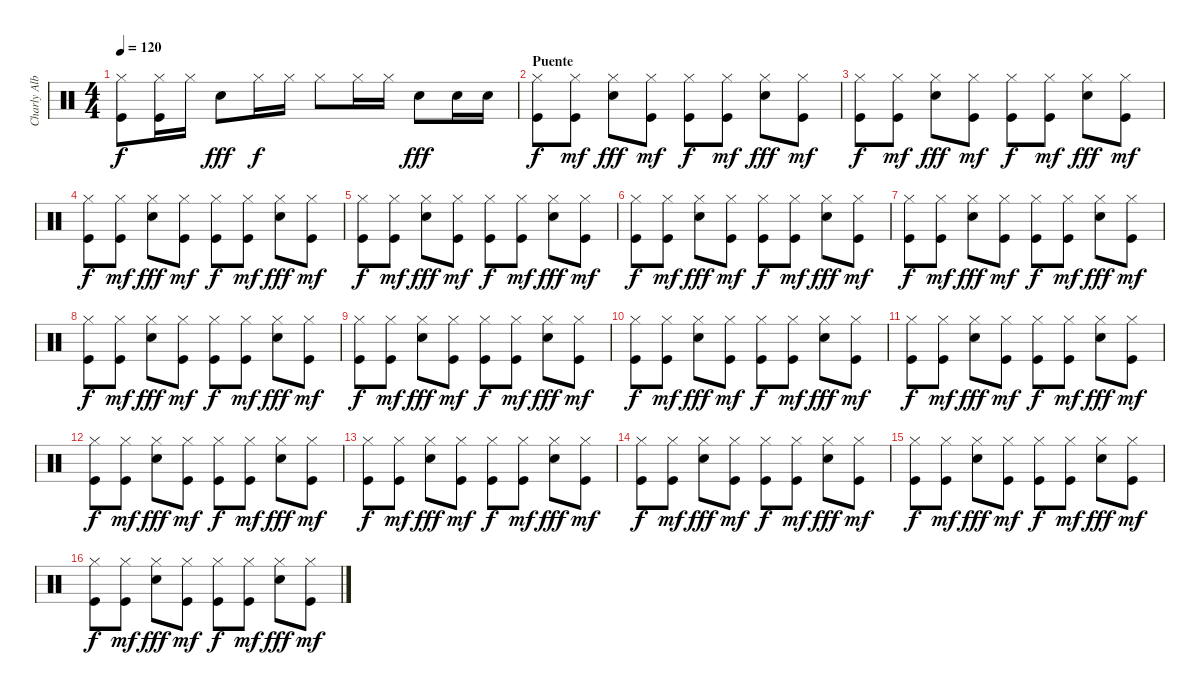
\track ("Charly Alberti" "Charly Alb") {instrument percussion}
\staff {score}
\articulation defaults
\ts (4 4)
\tempo 120
\clef neutral
\ks c
("Kick (hit)" "Hi-Hat (closed)").8{dy f} ("Kick (hit)" "Hi-Hat (closed)").16 "Hi-Hat (closed)".16 "Snare (hit) 2".8{dy fff} "Hi-Hat (closed)".16{dy f} "Hi-Hat (closed)".16 "Hi-Hat (closed)".8 "Hi-Hat (closed)".16 "Hi-Hat (closed)".16 "Snare (hit) 2".8{dy fff} "Snare (hit) 2".16 "Snare (hit) 2".16 |
\section ("" "Puente")
("Kick (hit)" "Hi-Hat (closed)").8{dy f} ("Kick (hit)" "Hi-Hat (closed)").8{dy mf} ("Snare (hit) 2" "Hi-Hat (closed)").8{dy fff} ("Kick (hit)" "Hi-Hat (closed)").8{dy mf} ("Kick (hit)" "Hi-Hat (closed)").8{dy f} ("Kick (hit)" "Hi-Hat (closed)").8{dy mf} ("Snare (hit) 2" "Hi-Hat (closed)").8{dy fff} ("Kick (hit)" "Hi-Hat (closed)").8{dy mf} |
("Kick (hit)" "Hi-Hat (closed)").8{dy f} ("Kick (hit)" "Hi-Hat (closed)").8{dy mf} ("Snare (hit) 2" "Hi-Hat (closed)").8{dy fff} ("Kick (hit)" "Hi-Hat (closed)").8{dy mf} ("Kick (hit)" "Hi-Hat (closed)").8{dy f} ("Kick (hit)" "Hi-Hat (closed)").8{dy mf} ("Snare (hit) 2" "Hi-Hat (closed)").8{dy fff} ("Kick (hit)" "Hi-Hat (closed)").8{dy mf} |
("Kick (hit)" "Hi-Hat (closed)").8{dy f} ("Kick (hit)" "Hi-Hat (closed)").8{dy mf} ("Snare (hit) 2" "Hi-Hat (closed)").8{dy fff} ("Kick (hit)" "Hi-Hat (closed)").8{dy mf} ("Kick (hit)" "Hi-Hat (closed)").8{dy f} ("Kick (hit)" "Hi-Hat (closed)").8{dy mf} ("Snare (hit) 2" "Hi-Hat (closed)").8{dy fff} ("Kick (hit)" "Hi-Hat (closed)").8{dy mf} |
("Kick (hit)" "Hi-Hat (closed)").8{dy f} ("Kick (hit)" "Hi-Hat (closed)").8{dy mf} ("Snare (hit) 2" "Hi-Hat (closed)").8{dy fff} ("Kick (hit)" "Hi-Hat (closed)").8{dy mf} ("Kick (hit)" "Hi-Hat (closed)").8{dy f} ("Kick (hit)" "Hi-Hat (closed)").8{dy mf} ("Snare (hit) 2" "Hi-Hat (closed)").8{dy fff} ("Kick (hit)" "Hi-Hat (closed)").8{dy mf} |
("Kick (hit)" "Hi-Hat (closed)").8{dy f} ("Kick (hit)" "Hi-Hat (closed)").8{dy mf} ("Snare (hit) 2" "Hi-Hat (closed)").8{dy fff} ("Kick (hit)" "Hi-Hat (closed)").8{dy mf} ("Kick (hit)" "Hi-Hat (closed)").8{dy f} ("Kick (hit)" "Hi-Hat (closed)").8{dy mf} ("Snare (hit) 2" "Hi-Hat (closed)").8{dy fff} ("Kick (hit)" "Hi-Hat (closed)").8{dy mf} |
("Kick (hit)" "Hi-Hat (closed)").8{dy f} ("Kick (hit)" "Hi-Hat (closed)").8{dy mf} ("Snare (hit) 2" "Hi-Hat (closed)").8{dy fff} ("Kick (hit)" "Hi-Hat (closed)").8{dy mf} ("Kick (hit)" "Hi-Hat (closed)").8{dy f} ("Kick (hit)" "Hi-Hat (closed)").8{dy mf} ("Snare (hit) 2" "Hi-Hat (closed)").8{dy fff} ("Kick (hit)" "Hi-Hat (closed)").8{dy mf} |
("Kick (hit)" "Hi-Hat (closed)").8{dy f} ("Kick (hit)" "Hi-Hat (closed)").8{dy mf} ("Snare (hit) 2" "Hi-Hat (closed)").8{dy fff} ("Kick (hit)" "Hi-Hat (closed)").8{dy mf} ("Kick (hit)" "Hi-Hat (closed)").8{dy f} ("Kick (hit)" "Hi-Hat (closed)").8{dy mf} ("Snare (hit) 2" "Hi-Hat (closed)").8{dy fff} ("Kick (hit)" "Hi-Hat (closed)").8{dy mf} |
("Kick (hit)" "Hi-Hat (closed)").8{dy f} ("Kick (hit)" "Hi-Hat (closed)").8{dy mf} ("Snare (hit) 2" "Hi-Hat (closed)").8{dy fff} ("Kick (hit)" "Hi-Hat (closed)").8{dy mf} ("Kick (hit)" "Hi-Hat (closed)").8{dy f} ("Kick (hit)" "Hi-Hat (closed)").8{dy mf} ("Snare (hit) 2" "Hi-Hat (closed)").8{dy fff} ("Kick (hit)" "Hi-Hat (closed)").8{dy mf} |
("Kick (hit)" "Hi-Hat (closed)").8{dy f} ("Kick (hit)" "Hi-Hat (closed)").8{dy mf} ("Snare (hit) 2" "Hi-Hat (closed)").8{dy fff} ("Kick (hit)" "Hi-Hat (closed)").8{dy mf} ("Kick (hit)" "Hi-Hat (closed)").8{dy f} ("Kick (hit)" "Hi-Hat (closed)").8{dy mf} ("Snare (hit) 2" "Hi-Hat (closed)").8{dy fff} ("Kick (hit)" "Hi-Hat (closed)").8{dy mf} |
("Kick (hit)" "Hi-Hat (closed)").8{dy f} ("Kick (hit)" "Hi-Hat (closed)").8{dy mf} ("Snare (hit) 2" "Hi-Hat (closed)").8{dy fff} ("Kick (hit)" "Hi-Hat (closed)").8{dy mf} ("Kick (hit)" "Hi-Hat (closed)").8{dy f} ("Kick (hit)" "Hi-Hat (closed)").8{dy mf} ("Snare (hit) 2" "Hi-Hat (closed)").8{dy fff} ("Kick (hit)" "Hi-Hat (closed)").8{dy mf} |
("Kick (hit)" "Hi-Hat (closed)").8{dy f} ("Kick (hit)" "Hi-Hat (closed)").8{dy mf} ("Snare (hit) 2" "Hi-Hat (closed)").8{dy fff} ("Kick (hit)" "Hi-Hat (closed)").8{dy mf} ("Kick (hit)" "Hi-Hat (closed)").8{dy f} ("Kick (hit)" "Hi-Hat (closed)").8{dy mf} ("Snare (hit) 2" "Hi-Hat (closed)").8{dy fff} ("Kick (hit)" "Hi-Hat (closed)").8{dy mf} |
("Kick (hit)" "Hi-Hat (closed)").8{dy f} ("Kick (hit)" "Hi-Hat (closed)").8{dy mf} ("Snare (hit) 2" "Hi-Hat (closed)").8{dy fff} ("Kick (hit)" "Hi-Hat (closed)").8{dy mf} ("Kick (hit)" "Hi-Hat (closed)").8{dy f} ("Kick (hit)" "Hi-Hat (closed)").8{dy mf} ("Snare (hit) 2" "Hi-Hat (closed)").8{dy fff} ("Kick (hit)" "Hi-Hat (closed)").8{dy mf} |
("Kick (hit)" "Hi-Hat (closed)").8{dy f} ("Kick (hit)" "Hi-Hat (closed)").8{dy mf} ("Snare (hit) 2" "Hi-Hat (closed)").8{dy fff} ("Kick (hit)" "Hi-Hat (closed)").8{dy mf} ("Kick (hit)" "Hi-Hat (closed)").8{dy f} ("Kick (hit)" "Hi-Hat (closed)").8{dy mf} ("Snare (hit) 2" "Hi-Hat (closed)").8{dy fff} ("Kick (hit)" "Hi-Hat (closed)").8{dy mf} |
("Kick (hit)" "Hi-Hat (closed)").8{dy f} ("Kick (hit)" "Hi-Hat (closed)").8{dy mf} ("Snare (hit) 2" "Hi-Hat (closed)").8{dy fff} ("Kick (hit)" "Hi-Hat (closed)").8{dy mf} ("Kick (hit)" "Hi-Hat (closed)").8{dy f} ("Kick (hit)" "Hi-Hat (closed)").8{dy mf} ("Snare (hit) 2" "Hi-Hat (closed)").8{dy fff} ("Kick (hit)" "Hi-Hat (closed)").8{dy mf} |
("Kick (hit)" "Hi-Hat (closed)").8{dy f} ("Kick (hit)" "Hi-Hat (closed)").8{dy mf} ("Snare (hit) 2" "Hi-Hat (closed)").8{dy fff} ("Kick (hit)" "Hi-Hat (closed)").8{dy mf} ("Kick (hit)" "Hi-Hat (closed)").8{dy f} ("Kick (hit)" "Hi-Hat (closed)").8{dy mf} ("Snare (hit) 2" "Hi-Hat (closed)").8{dy fff} ("Kick (hit)" "Hi-Hat (closed)").8{dy mf}
